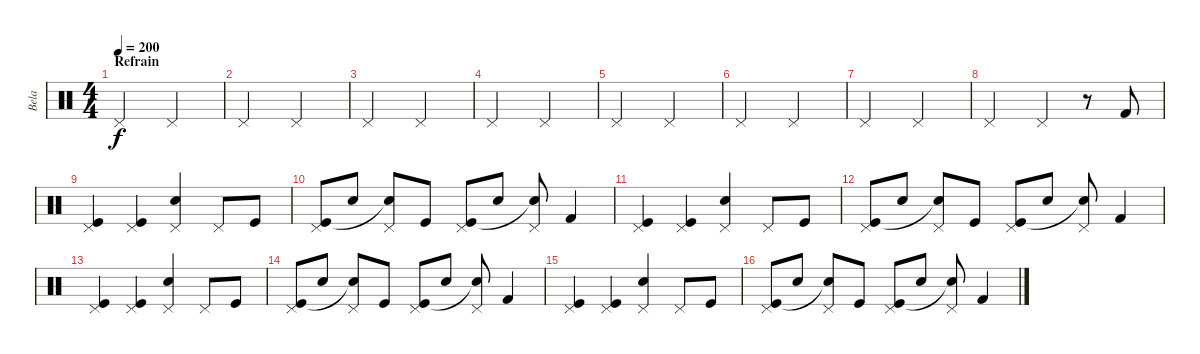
\track ("Bela" "Bela") {instrument percussion}
\staff {score}
\articulation defaults
\ts (4 4)
\section ("" "Refrain")
\tempo 200
\clef neutral
\ks c "Pedal Hi-Hat (hit)".2{dy f} "Pedal Hi-Hat (hit)".2
|
"Pedal Hi-Hat (hit)".2 "Pedal Hi-Hat (hit)".2 |
"Pedal Hi-Hat (hit)".2 "Pedal Hi-Hat (hit)".2 |
"Pedal Hi-Hat (hit)".2 "Pedal Hi-Hat (hit)".2 |
"Pedal Hi-Hat (hit)".2 "Pedal Hi-Hat (hit)".2 |
"Pedal Hi-Hat (hit)".2 "Pedal Hi-Hat (hit)".2 |
"Pedal Hi-Hat (hit)".2 "Pedal Hi-Hat (hit)".2 |
"Pedal Hi-Hat (hit)".2 "Pedal Hi-Hat (hit)".4 r.8 "Kick (hit) 2".8 |
("Pedal Hi-Hat (hit)" "Kick (hit)").4 ("Pedal Hi-Hat (hit)" "Kick (hit)").4 ("Pedal Hi-Hat (hit)" "Electric Snare (hit)").4 "Pedal Hi-Hat (hit)".8 "Kick (hit)".8 |
("Pedal Hi-Hat (hit)" "Kick (hit)").8 "Electric Snare (hit)".8 ("Pedal Hi-Hat (hit)" "Electric Snare (hit)"{t}).8 "Kick (hit)".8 ("Pedal Hi-Hat (hit)" "Kick (hit)").8 "Electric Snare (hit)".8 ("Pedal Hi-Hat (hit)" "Electric Snare (hit)"{t}).8 "Kick (hit) 2".4 |
("Pedal Hi-Hat (hit)" "Kick (hit)").4 ("Pedal Hi-Hat (hit)" "Kick (hit)").4 ("Pedal Hi-Hat (hit)" "Electric Snare (hit)").4 "Pedal Hi-Hat (hit)".8 "Kick (hit)".8 |
("Pedal Hi-Hat (hit)" "Kick (hit)").8 "Electric Snare (hit)".8 ("Pedal Hi-Hat (hit)" "Electric Snare (hit)"{t}).8 "Kick (hit)".8 ("Pedal Hi-Hat (hit)" "Kick (hit)").8 "Electric Snare (hit)".8 ("Pedal Hi-Hat (hit)" "Electric Snare (hit)"{t}).8 "Kick (hit) 2".4 |
("Pedal Hi-Hat (hit)" "Kick (hit)").4 ("Pedal Hi-Hat (hit)" "Kick (hit)").4 ("Pedal Hi-Hat (hit)" "Electric Snare (hit)").4 "Pedal Hi-Hat (hit)".8 "Kick (hit)".8 |
("Pedal Hi-Hat (hit)" "Kick (hit)").8 "Electric Snare (hit)".8 ("Pedal Hi-Hat (hit)" "Electric Snare (hit)"{t}).8 "Kick (hit)".8 ("Pedal Hi-Hat (hit)" "Kick (hit)").8 "Electric Snare (hit)".8 ("Pedal Hi-Hat (hit)" "Electric Snare (hit)"{t}).8 "Kick (hit) 2".4 |
("Pedal Hi-Hat (hit)" "Kick (hit)").4 ("Pedal Hi-Hat (hit)" "Kick (hit)").4 ("Pedal Hi-Hat (hit)" "Electric Snare (hit)").4 "Pedal Hi-Hat (hit)".8 "Kick (hit)".8 |
("Pedal Hi-Hat (hit)" "Kick (hit)").8 "Electric Snare (hit)".8 ("Pedal Hi-Hat (hit)" "Electric Snare (hit)"{t}).8 "Kick (hit)".8 ("Pedal Hi-Hat (hit)" "Kick (hit)").8 "Electric Snare (hit)".8 ("Pedal Hi-Hat (hit)" "Electric Snare (hit)"{t}).8 "Kick (hit) 2".4
